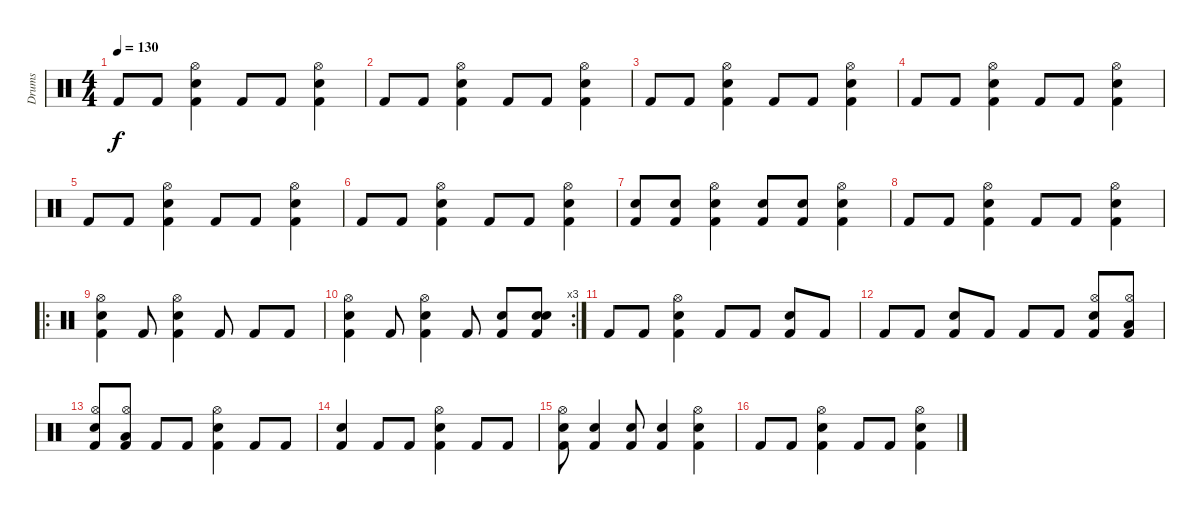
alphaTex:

\track ("Drums" "Drums") {instrument percussion}
\staff {score}
\articulation defaults
\ts (4 4)
\tempo 130
\clef neutral
\ks c "Kick (hit) 2".8{dy f} "Kick (hit) 2".8
("Kick (hit) 2" "Snare (hit) 2" "Hi-Hat (open)").4 "Kick (hit) 2".8 "Kick (hit) 2".8 ("Kick (hit) 2" "Snare (hit) 2" "Hi-Hat (open)").4 |
"Kick (hit) 2".8 "Kick (hit) 2".8 ("Kick (hit) 2" "Snare (hit) 2" "Hi-Hat (open)").4 "Kick (hit) 2".8 "Kick (hit) 2".8 ("Kick (hit) 2" "Snare (hit) 2" "Hi-Hat (open)").4 |
"Kick (hit) 2".8 "Kick (hit) 2".8 ("Kick (hit) 2" "Snare (hit) 2" "Hi-Hat (open)").4 "Kick (hit) 2".8 "Kick (hit) 2".8 ("Kick (hit) 2" "Snare (hit) 2" "Hi-Hat (open)").4 |
"Kick (hit) 2".8 "Kick (hit) 2".8 ("Kick (hit) 2" "Snare (hit) 2" "Hi-Hat (open)").4 "Kick (hit) 2".8 "Kick (hit) 2".8 ("Kick (hit) 2" "Snare (hit) 2" "Hi-Hat (open)").4 |
"Kick (hit) 2".8 "Kick (hit) 2".8 ("Kick (hit) 2" "Snare (hit) 2" "Hi-Hat (open)").4 "Kick (hit) 2".8 "Kick (hit) 2".8 ("Kick (hit) 2" "Snare (hit) 2" "Hi-Hat (open)").4 |
"Kick (hit) 2".8 "Kick (hit) 2".8 ("Kick (hit) 2" "Snare (hit) 2" "Hi-Hat (open)").4 "Kick (hit) 2".8 "Kick (hit) 2".8 ("Kick (hit) 2" "Snare (hit) 2" "Hi-Hat (open)").4 |
("Kick (hit) 2" "Snare (hit) 2").8 ("Kick (hit) 2" "Snare (hit) 2").8 ("Kick (hit) 2" "Snare (hit) 2" "Hi-Hat (open)").4 ("Kick (hit) 2" "Snare (hit) 2").8 ("Kick (hit) 2" "Snare (hit) 2").8 ("Kick (hit) 2" "Snare (hit) 2" "Hi-Hat (open)").4 |
"Kick (hit) 2".8 "Kick (hit) 2".8 ("Kick (hit) 2" "Snare (hit) 2" "Hi-Hat (open)").4 "Kick (hit) 2".8 "Kick (hit) 2".8 ("Kick (hit) 2" "Snare (hit) 2" "Hi-Hat (open)").4 |
\ro
("Kick (hit) 2" "Snare (hit) 2" "Hi-Hat (open)").4 "Kick (hit) 2".8 ("Kick (hit) 2" "Snare (hit) 2" "Hi-Hat (open)").4 "Kick (hit) 2".8 "Kick (hit) 2".8 "Kick (hit) 2".8 |
\rc 3
("Kick (hit) 2" "Snare (hit) 2" "Hi-Hat (open)").4 "Kick (hit) 2".8 ("Kick (hit) 2" "Snare (hit) 2" "Hi-Hat (open)").4 "Kick (hit) 2".8 ("Kick (hit) 2" "Electric Snare (hit)").8 ("Kick (hit) 2" "Snare (hit) 2" "Electric Snare (hit)").8 |
"Kick (hit) 2".8 "Kick (hit) 2".8 ("Kick (hit) 2" "Snare (hit) 2" "Hi-Hat (open)").4 "Kick (hit) 2".8 "Kick (hit) 2".8 ("Kick (hit) 2" "Snare (hit) 2").8 "Kick (hit) 2".8 |
"Kick (hit) 2".8 "Kick (hit) 2".8 ("Kick (hit) 2" "Snare (hit) 2").8 "Kick (hit) 2".8 "Kick (hit) 2".8 "Kick (hit) 2".8 ("Kick (hit) 2" "Hi-Hat (open)" "Electric Snare (hit)").8 ("Kick (hit) 2" "Hi-Hat (open)" "Low Floor Tom (hit)").8 |
("Kick (hit) 2" "Hi-Hat (open)" "Electric Snare (hit)").8 ("Kick (hit) 2" "Hi-Hat (open)" "Low Floor Tom (hit)").8 "Kick (hit) 2".8 "Kick (hit) 2".8 ("Kick (hit) 2" "Snare (hit) 2" "Hi-Hat (open)").4 "Kick (hit) 2".8 "Kick (hit) 2".8 |
("Kick (hit) 2" "Snare (hit) 2").4 "Kick (hit) 2".8 "Kick (hit) 2".8 ("Kick (hit) 2" "Snare (hit) 2" "Hi-Hat (open)").4 "Kick (hit) 2".8 "Kick (hit) 2".8 |
("Kick (hit) 2" "Snare (hit) 2" "Hi-Hat (open)").8 ("Kick (hit) 2" "Snare (hit) 2").4 ("Kick (hit) 2" "Snare (hit) 2").8 ("Kick (hit) 2" "Snare (hit) 2").4 ("Kick (hit) 2" "Snare (hit) 2" "Hi-Hat (open)").4 |
"Kick (hit) 2".8 "Kick (hit) 2".8 ("Kick (hit) 2" "Snare (hit) 2" "Hi-Hat (open)").4 "Kick (hit) 2".8 "Kick (hit) 2".8 ("Kick (hit) 2" "Snare (hit) 2" "Hi-Hat (open)").4
